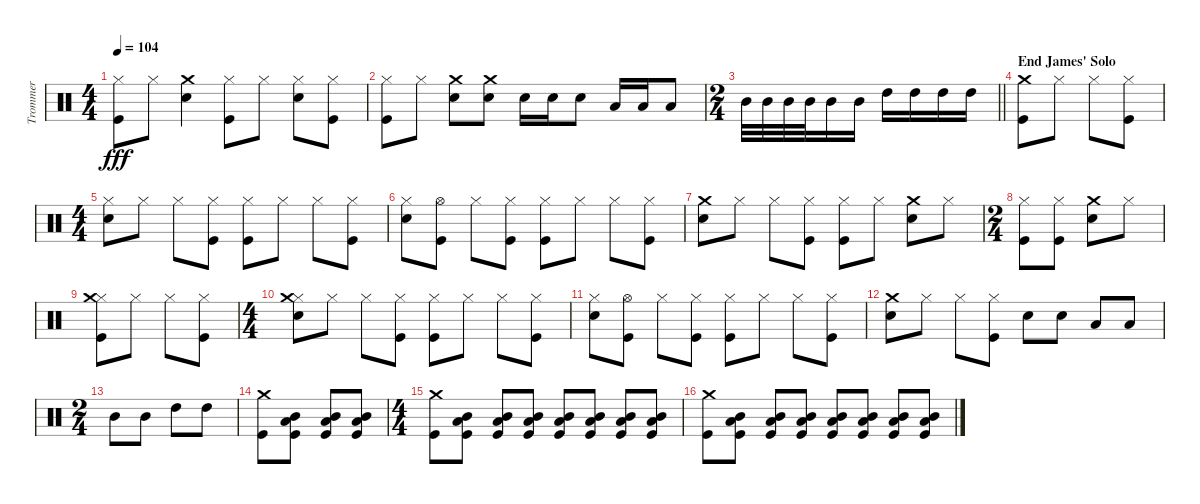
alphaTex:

\track ("Trommer" "Trommer") {instrument percussion}
\staff {score}
\articulation defaults
\ts (4 4)
\tempo 104
\clef neutral
\ks c
("Hi-Hat (closed)" "Kick (hit)").8{dy fff} "Hi-Hat (closed)".8 ("Crash medium (hit)" "Snare (hit) 2").4 ("Hi-Hat (closed)" "Kick (hit)").8 "Hi-Hat (closed)".8 ("Hi-Hat (closed)" "Snare (hit) 2").8 ("Hi-Hat (closed)" "Kick (hit)").8 |
("Kick (hit)" "Hi-Hat (closed)").8 "Hi-Hat (closed)".8 ("Snare (hit) 2" "Crash medium (hit)").8 ("Snare (hit) 2" "Crash medium (hit)").8 "Snare (hit) 2".16 "Snare (hit) 2".16 "Snare (hit) 2".8 "Low Tom (hit)".16 "Low Tom (hit)".16 "Low Tom (hit)".8 |
\ts (2 4)
\barLineRight lightlight "Mid Tom (hit)".32 "Mid Tom (hit)".32 "Mid Tom (hit)".32 "Mid Tom (hit)".32 "Mid Tom (hit)".16 "Mid Tom (hit)".16 "High Tom (hit)".16 "High Tom (hit)".16 "High Tom (hit)".16 "High Tom (hit)".16
|
\section ("" "End James' Solo")
("Crash medium (hit)" "Kick (hit)").8 "Hi-Hat (closed)".8 "Hi-Hat (closed)".8 ("Kick (hit)" "Hi-Hat (closed)").8 |
\ts (4 4)
("Snare (hit) 2" "Hi-Hat (closed)").8 "Hi-Hat (closed)".8 "Hi-Hat (closed)".8 ("Kick (hit)" "Hi-Hat (closed)").8 ("Kick (hit)" "Hi-Hat (closed)").8 "Hi-Hat (closed)".8 "Hi-Hat (closed)".8 ("Kick (hit)" "Hi-Hat (closed)").8 |
("Snare (hit) 2" "Hi-Hat (closed)").8 ("Kick (hit)" "Hi-Hat (open)").8 "Hi-Hat (closed)".8 ("Kick (hit)" "Hi-Hat (closed)").8 ("Hi-Hat (closed)" "Kick (hit)").8 "Hi-Hat (closed)".8 "Hi-Hat (closed)".8 ("Kick (hit)" "Hi-Hat (closed)").8 |
("Snare (hit) 2" "Crash medium (hit)").8 "Hi-Hat (closed)".8 "Hi-Hat (closed)".8 ("Kick (hit)" "Hi-Hat (closed)").8 ("Kick (hit)" "Hi-Hat (closed)").8 "Hi-Hat (closed)".8 ("Snare (hit) 2" "Crash medium (hit)").8 "Hi-Hat (closed)".8 |
\ts (2 4)
("Kick (hit)" "Hi-Hat (closed)").8 ("Hi-Hat (closed)" "Kick (hit)").8 ("Snare (hit) 2" "Crash medium (hit)").8 "Hi-Hat (closed)".8 |
("Hi-Hat (closed)" "Kick (hit)" "Crash medium (hit)").8 "Hi-Hat (closed)".8 "Hi-Hat (closed)".8 ("Hi-Hat (closed)" "Kick (hit)").8 |
\ts (4 4)
("Hi-Hat (closed)" "Crash medium (hit)" "Snare (hit) 2").8 "Hi-Hat (closed)".8 "Hi-Hat (closed)".8 ("Kick (hit)" "Hi-Hat (closed)").8 ("Kick (hit)" "Hi-Hat (closed)").8 "Hi-Hat (closed)".8 "Hi-Hat (closed)".8 ("Hi-Hat (closed)" "Kick (hit)").8 |
("Snare (hit) 2" "Hi-Hat (closed)").8 ("Kick (hit)" "Hi-Hat (open)").8 "Hi-Hat (closed)".8 ("Kick (hit)" "Hi-Hat (closed)").8 ("Kick (hit)" "Hi-Hat (closed)").8 "Hi-Hat (closed)".8 "Hi-Hat (closed)".8 ("Hi-Hat (closed)" "Kick (hit)").8 |
("Crash medium (hit)" "Snare (hit) 2").8 "Hi-Hat (closed)".8 "Hi-Hat (closed)".8 ("Kick (hit)" "Hi-Hat (closed)").8 "Snare (hit) 2".8 "Snare (hit) 2".8 "Low Tom (hit)".8 "Low Tom (hit)".8 |
\ts (2 4)
"Mid Tom (hit)".8 "Mid Tom (hit)".8 "High Tom (hit)".8 "High Tom (hit)".8 |
("Kick (hit)" "Crash medium (hit)").8{volume 11} ("Kick (hit)" "Low Tom (hit)" "Mid Tom (hit)").8 ("Kick (hit)" "Mid Tom (hit)" "Low Tom (hit)").8 ("Kick (hit)" "Mid Tom (hit)" "Low Tom (hit)").8 |
\ts (4 4)
("Crash medium (hit)" "Kick (hit)").8 ("Low Tom (hit)" "Kick (hit)" "Mid Tom (hit)").8 ("Kick (hit)" "Mid Tom (hit)" "Low Tom (hit)").8 ("Kick (hit)" "Mid Tom (hit)" "Low Tom (hit)").8 ("Kick (hit)" "Mid Tom (hit)" "Low Tom (hit)").8 ("Mid Tom (hit)" "Kick (hit)" "Low Tom (hit)").8 ("Kick (hit)" "Mid Tom (hit)" "Low Tom (hit)").8 ("Kick (hit)" "Mid Tom (hit)" "Low Tom (hit)").8 |
("Kick (hit)" "Crash medium (hit)").8 ("Kick (hit)" "Mid Tom (hit)" "Low Tom (hit)").8 ("Low Tom (hit)" "Mid Tom (hit)" "Kick (hit)").8 ("Kick (hit)" "Mid Tom (hit)" "Low Tom (hit)").8 ("Kick (hit)" "Mid Tom (hit)" "Low Tom (hit)").8 ("Kick (hit)" "Mid Tom (hit)" "Low Tom (hit)").8 ("Low Tom (hit)" "Kick (hit)" "Mid Tom (hit)").8 ("Low Tom (hit)" "Kick (hit)" "Mid Tom (hit)").8
